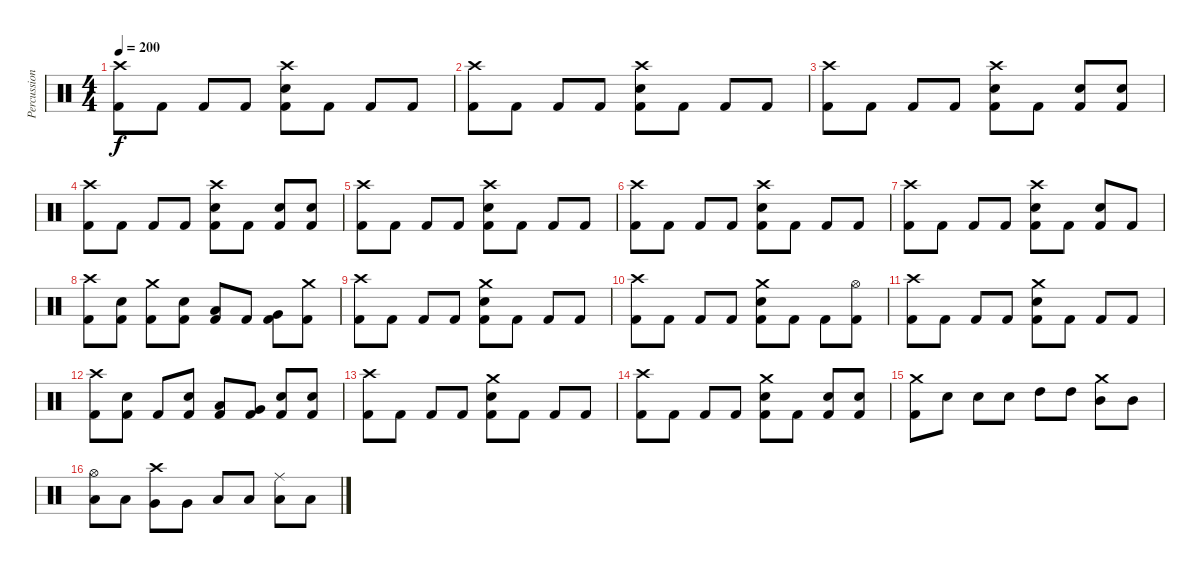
\track ("Percussion" "Percussion") {instrument percussion}
\staff {score}
\articulation defaults
\ts (4 4)
\section ("" "")
\tempo 200
\clef neutral
\ks c
("Crash high (hit)" "Kick (hit) 2").8{dy f} "Kick (hit) 2".8 "Kick (hit) 2".8 "Kick (hit) 2".8 ("Crash high (hit)" "Electric Snare (hit)" "Kick (hit) 2").8 "Kick (hit) 2".8 "Kick (hit) 2".8 "Kick (hit) 2".8 |
("Crash high (hit)" "Kick (hit) 2").8 "Kick (hit) 2".8 "Kick (hit) 2".8 "Kick (hit) 2".8 ("Crash high (hit)" "Electric Snare (hit)" "Kick (hit) 2").8 "Kick (hit) 2".8 "Kick (hit) 2".8 "Kick (hit) 2".8 |
("Crash high (hit)" "Kick (hit) 2").8 "Kick (hit) 2".8 "Kick (hit) 2".8 "Kick (hit) 2".8 ("Crash high (hit)" "Electric Snare (hit)" "Kick (hit) 2").8 "Kick (hit) 2".8 ("Electric Snare (hit)" "Kick (hit) 2").8 ("Electric Snare (hit)" "Kick (hit) 2").8 |
("Crash high (hit)" "Kick (hit) 2").8 "Kick (hit) 2".8 "Kick (hit) 2".8 "Kick (hit) 2".8 ("Crash high (hit)" "Electric Snare (hit)" "Kick (hit) 2").8 "Kick (hit) 2".8 ("Electric Snare (hit)" "Kick (hit) 2").8 ("Electric Snare (hit)" "Kick (hit) 2").8 |
("Crash high (hit)" "Kick (hit) 2").8 "Kick (hit) 2".8 "Kick (hit) 2".8 "Kick (hit) 2".8 ("Crash high (hit)" "Electric Snare (hit)" "Kick (hit) 2").8 "Kick (hit) 2".8 "Kick (hit) 2".8 "Kick (hit) 2".8 |
("Crash high (hit)" "Kick (hit) 2").8 "Kick (hit) 2".8 "Kick (hit) 2".8 "Kick (hit) 2".8 ("Crash high (hit)" "Electric Snare (hit)" "Kick (hit) 2").8 "Kick (hit) 2".8 "Kick (hit) 2".8 "Kick (hit) 2".8 |
("Crash high (hit)" "Kick (hit) 2").8 "Kick (hit) 2".8 "Kick (hit) 2".8 "Kick (hit) 2".8 ("Crash high (hit)" "Electric Snare (hit)" "Kick (hit) 2").8 "Kick (hit) 2".8 ("Electric Snare (hit)" "Kick (hit) 2").8 "Kick (hit) 2".8 |
("Crash high (hit)" "Kick (hit) 2").8 ("Electric Snare (hit)" "Kick (hit) 2").8 ("Crash medium (hit)" "Kick (hit) 2").8 ("Electric Snare (hit)" "Kick (hit) 2").8 ("Low Tom (hit)" "Kick (hit) 2").8 "Kick (hit) 2".8 ("Very Low Tom (hit)" "Kick (hit) 2").8 ("Crash medium (hit)" "Kick (hit) 2").8 |
("Crash high (hit)" "Kick (hit) 2").8 "Kick (hit) 2".8 "Kick (hit) 2".8 "Kick (hit) 2".8 ("Crash medium (hit)" "Electric Snare (hit)" "Kick (hit) 2").8 "Kick (hit) 2".8 "Kick (hit) 2".8 "Kick (hit) 2".8 |
("Crash high (hit)" "Kick (hit) 2").8 "Kick (hit) 2".8 "Kick (hit) 2".8 "Kick (hit) 2".8 ("Crash medium (hit)" "Electric Snare (hit)" "Kick (hit) 2").8 "Kick (hit) 2".8 "Kick (hit) 2".8 ("Hi-Hat (open)" "Kick (hit) 2").8 |
("Crash high (hit)" "Kick (hit) 2").8 "Kick (hit) 2".8 "Kick (hit) 2".8 "Kick (hit) 2".8 ("Crash medium (hit)" "Electric Snare (hit)" "Kick (hit) 2").8 "Kick (hit) 2".8 "Kick (hit) 2".8 "Kick (hit) 2".8 |
("Crash high (hit)" "Kick (hit) 2").8 ("Electric Snare (hit)" "Kick (hit) 2").8 "Kick (hit) 2".8 ("Electric Snare (hit)" "Kick (hit) 2").8 ("Low Tom (hit)" "Kick (hit) 2").8 ("Very Low Tom (hit)" "Kick (hit) 2").8 ("Electric Snare (hit)" "Kick (hit) 2").8 ("Electric Snare (hit)" "Kick (hit) 2").8 |
("Crash high (hit)" "Kick (hit) 2").8 "Kick (hit) 2".8 "Kick (hit) 2".8 "Kick (hit) 2".8 ("Crash medium (hit)" "Electric Snare (hit)" "Kick (hit) 2").8 "Kick (hit) 2".8 "Kick (hit) 2".8 "Kick (hit) 2".8 |
("Crash high (hit)" "Kick (hit) 2").8 "Kick (hit) 2".8 "Kick (hit) 2".8 "Kick (hit) 2".8 ("Crash medium (hit)" "Electric Snare (hit)" "Kick (hit) 2").8 "Kick (hit) 2".8 ("Electric Snare (hit)" "Kick (hit) 2").8 ("Electric Snare (hit)" "Kick (hit) 2").8 |
("Crash medium (hit)" "Kick (hit) 2").8 "Electric Snare (hit)".8 "Electric Snare (hit)".8 "Electric Snare (hit)".8 "High Tom (hit)".8 "High Tom (hit)".8 ("Crash medium (hit)" "Mid Tom (hit)").8 "Mid Tom (hit)".8 |
("Hi-Hat (open)" "Low Tom (hit)").8 "Low Tom (hit)".8 ("Crash high (hit)" "Very Low Tom (hit)").8 "Very Low Tom (hit)".8 "Low Floor Tom (hit)".8 "Low Floor Tom (hit)".8 ("Ride (middle)" "Low Floor Tom (hit)").8 "Low Floor Tom (hit)".8
